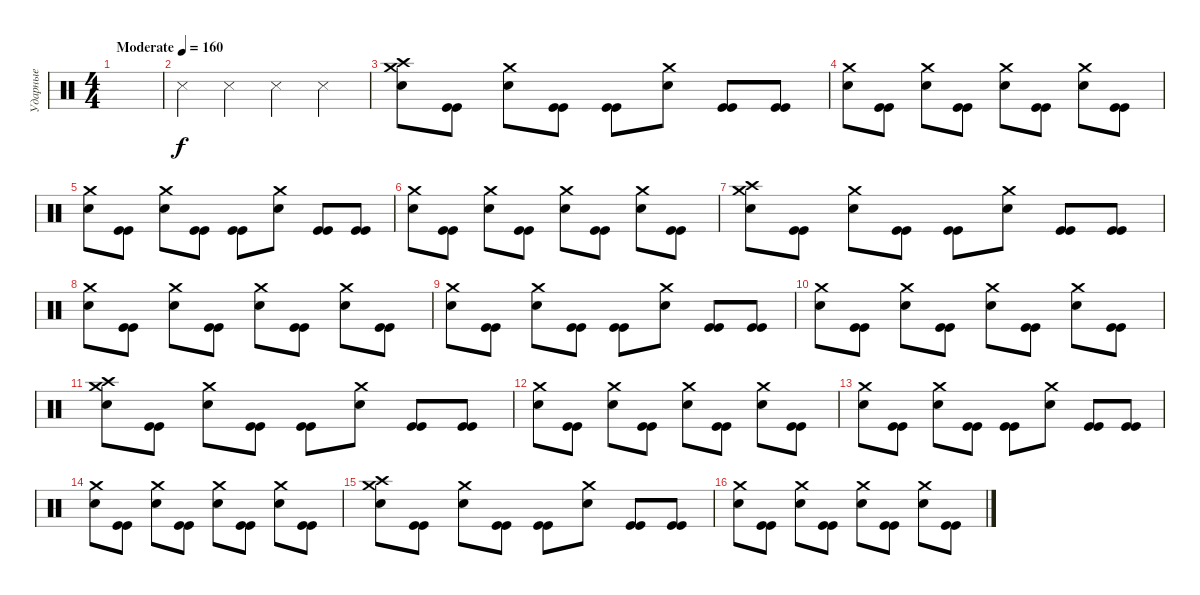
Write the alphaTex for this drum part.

\track ("Ударные" "Ударные") {instrument percussion}
\staff {score}
\articulation defaults
\ts (4 4)
\tempo (160 "Moderate")
\clef neutral
\ks c
|
"Snare (side stick) 3".4 "Snare (side stick) 3".4 "Snare (side stick) 3".4 "Snare (side stick) 3".4 |
("Crash high (hit)" "Crash medium (hit)" "Electric Snare (hit)").8 ("Kick (hit)" "Kick (hit)").8 ("Crash medium (hit)" "Electric Snare (hit)").8 ("Kick (hit)" "Kick (hit)").8 ("Kick (hit)" "Kick (hit)").8 ("Crash medium (hit)" "Electric Snare (hit)").8 ("Kick (hit)" "Kick (hit)").8 ("Kick (hit)" "Kick (hit)").8 |
("Crash medium (hit)" "Electric Snare (hit)").8 ("Kick (hit)" "Kick (hit)").8 ("Crash medium (hit)" "Electric Snare (hit)").8 ("Kick (hit)" "Kick (hit)").8 ("Crash medium (hit)" "Electric Snare (hit)").8 ("Kick (hit)" "Kick (hit)").8 ("Crash medium (hit)" "Electric Snare (hit)").8 ("Kick (hit)" "Kick (hit)").8 |
("Crash medium (hit)" "Electric Snare (hit)").8 ("Kick (hit)" "Kick (hit)").8 ("Crash medium (hit)" "Electric Snare (hit)").8 ("Kick (hit)" "Kick (hit)").8 ("Kick (hit)" "Kick (hit)").8 ("Crash medium (hit)" "Electric Snare (hit)").8 ("Kick (hit)" "Kick (hit)").8 ("Kick (hit)" "Kick (hit)").8 |
("Crash medium (hit)" "Electric Snare (hit)").8 ("Kick (hit)" "Kick (hit)").8 ("Crash medium (hit)" "Electric Snare (hit)").8 ("Kick (hit)" "Kick (hit)").8 ("Crash medium (hit)" "Electric Snare (hit)").8 ("Kick (hit)" "Kick (hit)").8 ("Crash medium (hit)" "Electric Snare (hit)").8 ("Kick (hit)" "Kick (hit)").8 |
("Crash high (hit)" "Crash medium (hit)" "Electric Snare (hit)").8 ("Kick (hit)" "Kick (hit)").8 ("Crash medium (hit)" "Electric Snare (hit)").8 ("Kick (hit)" "Kick (hit)").8 ("Kick (hit)" "Kick (hit)").8 ("Crash medium (hit)" "Electric Snare (hit)").8 ("Kick (hit)" "Kick (hit)").8 ("Kick (hit)" "Kick (hit)").8 |
("Crash medium (hit)" "Electric Snare (hit)").8 ("Kick (hit)" "Kick (hit)").8 ("Crash medium (hit)" "Electric Snare (hit)").8 ("Kick (hit)" "Kick (hit)").8 ("Crash medium (hit)" "Electric Snare (hit)").8 ("Kick (hit)" "Kick (hit)").8 ("Crash medium (hit)" "Electric Snare (hit)").8 ("Kick (hit)" "Kick (hit)").8 |
("Crash medium (hit)" "Electric Snare (hit)").8 ("Kick (hit)" "Kick (hit)").8 ("Crash medium (hit)" "Electric Snare (hit)").8 ("Kick (hit)" "Kick (hit)").8 ("Kick (hit)" "Kick (hit)").8 ("Crash medium (hit)" "Electric Snare (hit)").8 ("Kick (hit)" "Kick (hit)").8 ("Kick (hit)" "Kick (hit)").8 |
("Crash medium (hit)" "Electric Snare (hit)").8 ("Kick (hit)" "Kick (hit)").8 ("Crash medium (hit)" "Electric Snare (hit)").8 ("Kick (hit)" "Kick (hit)").8 ("Crash medium (hit)" "Electric Snare (hit)").8 ("Kick (hit)" "Kick (hit)").8 ("Crash medium (hit)" "Electric Snare (hit)").8 ("Kick (hit)" "Kick (hit)").8 |
("Crash high (hit)" "Crash medium (hit)" "Electric Snare (hit)").8 ("Kick (hit)" "Kick (hit)").8 ("Crash medium (hit)" "Electric Snare (hit)").8 ("Kick (hit)" "Kick (hit)").8 ("Kick (hit)" "Kick (hit)").8 ("Crash medium (hit)" "Electric Snare (hit)").8 ("Kick (hit)" "Kick (hit)").8 ("Kick (hit)" "Kick (hit)").8 |
("Crash medium (hit)" "Electric Snare (hit)").8 ("Kick (hit)" "Kick (hit)").8 ("Crash medium (hit)" "Electric Snare (hit)").8 ("Kick (hit)" "Kick (hit)").8 ("Crash medium (hit)" "Electric Snare (hit)").8 ("Kick (hit)" "Kick (hit)").8 ("Crash medium (hit)" "Electric Snare (hit)").8 ("Kick (hit)" "Kick (hit)").8 |
("Crash medium (hit)" "Electric Snare (hit)").8 ("Kick (hit)" "Kick (hit)").8 ("Crash medium (hit)" "Electric Snare (hit)").8 ("Kick (hit)" "Kick (hit)").8 ("Kick (hit)" "Kick (hit)").8 ("Crash medium (hit)" "Electric Snare (hit)").8 ("Kick (hit)" "Kick (hit)").8 ("Kick (hit)" "Kick (hit)").8 |
("Crash medium (hit)" "Electric Snare (hit)").8 ("Kick (hit)" "Kick (hit)").8 ("Crash medium (hit)" "Electric Snare (hit)").8 ("Kick (hit)" "Kick (hit)").8 ("Crash medium (hit)" "Electric Snare (hit)").8 ("Kick (hit)" "Kick (hit)").8 ("Crash medium (hit)" "Electric Snare (hit)").8 ("Kick (hit)" "Kick (hit)").8 |
("Crash high (hit)" "Crash medium (hit)" "Electric Snare (hit)").8 ("Kick (hit)" "Kick (hit)").8 ("Crash medium (hit)" "Electric Snare (hit)").8 ("Kick (hit)" "Kick (hit)").8 ("Kick (hit)" "Kick (hit)").8 ("Crash medium (hit)" "Electric Snare (hit)").8 ("Kick (hit)" "Kick (hit)").8 ("Kick (hit)" "Kick (hit)").8 |
("Crash medium (hit)" "Electric Snare (hit)").8 ("Kick (hit)" "Kick (hit)").8 ("Crash medium (hit)" "Electric Snare (hit)").8 ("Kick (hit)" "Kick (hit)").8 ("Crash medium (hit)" "Electric Snare (hit)").8 ("Kick (hit)" "Kick (hit)").8 ("Crash medium (hit)" "Electric Snare (hit)").8 ("Kick (hit)" "Kick (hit)").8
